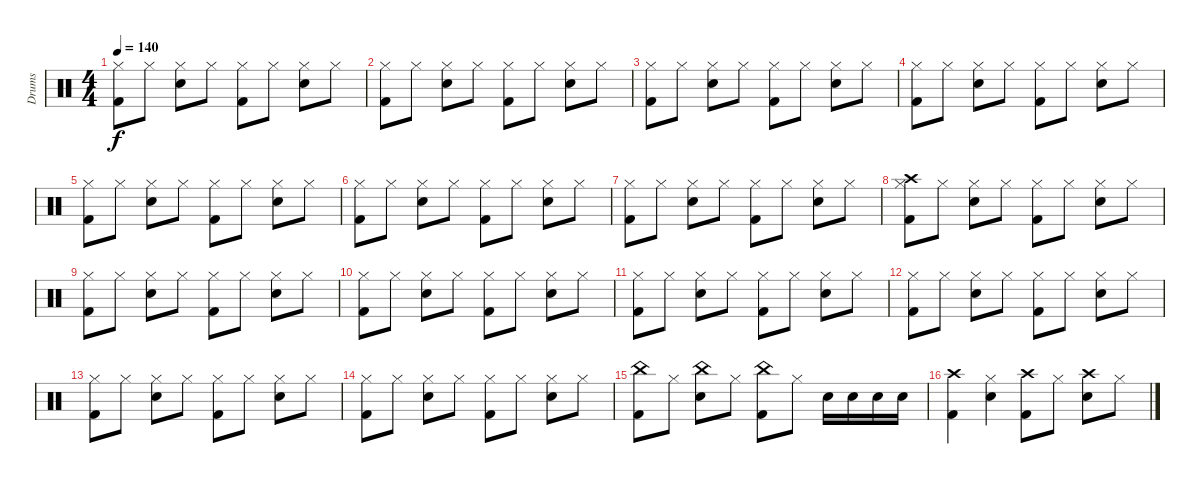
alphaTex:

\track ("Drums" "Drums") {instrument percussion}
\staff {score}
\articulation defaults
\ts (4 4)
\tempo 140
\clef neutral
\ks c
("Hi-Hat (closed)" "Kick (hit) 2").8{dy f} "Hi-Hat (closed)".8 ("Hi-Hat (closed)" "Electric Snare (hit)").8 "Hi-Hat (closed)".8 ("Hi-Hat (closed)" "Kick (hit) 2").8 "Hi-Hat (closed)".8 ("Hi-Hat (closed)" "Electric Snare (hit)").8 "Hi-Hat (closed)".8 |
("Hi-Hat (closed)" "Kick (hit) 2").8 "Hi-Hat (closed)".8 ("Hi-Hat (closed)" "Electric Snare (hit)").8 "Hi-Hat (closed)".8 ("Hi-Hat (closed)" "Kick (hit) 2").8 "Hi-Hat (closed)".8 ("Hi-Hat (closed)" "Electric Snare (hit)").8 "Hi-Hat (closed)".8 |
("Hi-Hat (closed)" "Kick (hit) 2").8 "Hi-Hat (closed)".8 ("Hi-Hat (closed)" "Electric Snare (hit)").8 "Hi-Hat (closed)".8 ("Hi-Hat (closed)" "Kick (hit) 2").8 "Hi-Hat (closed)".8 ("Hi-Hat (closed)" "Electric Snare (hit)").8 "Hi-Hat (closed)".8 |
("Hi-Hat (closed)" "Kick (hit) 2").8 "Hi-Hat (closed)".8 ("Hi-Hat (closed)" "Electric Snare (hit)").8 "Hi-Hat (closed)".8 ("Hi-Hat (closed)" "Kick (hit) 2").8 "Hi-Hat (closed)".8 ("Hi-Hat (closed)" "Electric Snare (hit)").8 "Hi-Hat (closed)".8 |
("Hi-Hat (closed)" "Kick (hit) 2").8 "Hi-Hat (closed)".8 ("Hi-Hat (closed)" "Electric Snare (hit)").8 "Hi-Hat (closed)".8 ("Hi-Hat (closed)" "Kick (hit) 2").8 "Hi-Hat (closed)".8 ("Hi-Hat (closed)" "Electric Snare (hit)").8 "Hi-Hat (closed)".8 |
("Hi-Hat (closed)" "Kick (hit) 2").8 "Hi-Hat (closed)".8 ("Hi-Hat (closed)" "Electric Snare (hit)").8 "Hi-Hat (closed)".8 ("Hi-Hat (closed)" "Kick (hit) 2").8 "Hi-Hat (closed)".8 ("Hi-Hat (closed)" "Electric Snare (hit)").8 "Hi-Hat (closed)".8 |
("Hi-Hat (closed)" "Kick (hit) 2").8 "Hi-Hat (closed)".8 ("Hi-Hat (closed)" "Electric Snare (hit)").8 "Hi-Hat (closed)".8 ("Hi-Hat (closed)" "Kick (hit) 2").8 "Hi-Hat (closed)".8 ("Hi-Hat (closed)" "Electric Snare (hit)").8 "Hi-Hat (closed)".8 |
("Hi-Hat (closed)" "Kick (hit) 2" "Crash high (hit)").8 "Hi-Hat (closed)".8 ("Hi-Hat (closed)" "Electric Snare (hit)").8 "Hi-Hat (closed)".8 ("Hi-Hat (closed)" "Kick (hit) 2").8 "Hi-Hat (closed)".8 ("Hi-Hat (closed)" "Electric Snare (hit)").8 "Hi-Hat (closed)".8 |
("Hi-Hat (closed)" "Kick (hit) 2").8 "Hi-Hat (closed)".8 ("Hi-Hat (closed)" "Electric Snare (hit)").8 "Hi-Hat (closed)".8 ("Hi-Hat (closed)" "Kick (hit) 2").8 "Hi-Hat (closed)".8 ("Hi-Hat (closed)" "Electric Snare (hit)").8 "Hi-Hat (closed)".8 |
("Hi-Hat (closed)" "Kick (hit) 2").8 "Hi-Hat (closed)".8 ("Hi-Hat (closed)" "Electric Snare (hit)").8 "Hi-Hat (closed)".8 ("Hi-Hat (closed)" "Kick (hit) 2").8 "Hi-Hat (closed)".8 ("Hi-Hat (closed)" "Electric Snare (hit)").8 "Hi-Hat (closed)".8 |
("Hi-Hat (closed)" "Kick (hit) 2").8 "Hi-Hat (closed)".8 ("Hi-Hat (closed)" "Electric Snare (hit)").8 "Hi-Hat (closed)".8 ("Hi-Hat (closed)" "Kick (hit) 2").8 "Hi-Hat (closed)".8 ("Hi-Hat (closed)" "Electric Snare (hit)").8 "Hi-Hat (closed)".8 |
("Hi-Hat (closed)" "Kick (hit) 2").8 "Hi-Hat (closed)".8 ("Hi-Hat (closed)" "Electric Snare (hit)").8 "Hi-Hat (closed)".8 ("Hi-Hat (closed)" "Kick (hit) 2").8 "Hi-Hat (closed)".8 ("Hi-Hat (closed)" "Electric Snare (hit)").8 "Hi-Hat (closed)".8 |
("Hi-Hat (closed)" "Kick (hit) 2").8 "Hi-Hat (closed)".8 ("Hi-Hat (closed)" "Electric Snare (hit)").8 "Hi-Hat (closed)".8 ("Hi-Hat (closed)" "Kick (hit) 2").8 "Hi-Hat (closed)".8 ("Hi-Hat (closed)" "Electric Snare (hit)").8 "Hi-Hat (closed)".8 |
("Hi-Hat (closed)" "Kick (hit) 2").8 "Hi-Hat (closed)".8 ("Hi-Hat (closed)" "Electric Snare (hit)").8 "Hi-Hat (closed)".8 ("Hi-Hat (closed)" "Kick (hit) 2").8 "Hi-Hat (closed)".8 ("Hi-Hat (closed)" "Electric Snare (hit)").8 "Hi-Hat (closed)".8 |
("China (hit)" "Kick (hit) 2").8 "Hi-Hat (closed)".8 ("China (hit)" "Electric Snare (hit)").8 "Hi-Hat (closed)".8 ("China (hit)" "Kick (hit) 2").8 "Hi-Hat (closed)".8 "Electric Snare (hit)".16 "Electric Snare (hit)".16 "Electric Snare (hit)".16 "Electric Snare (hit)".16 |
("Crash high (hit)" "Kick (hit) 2").4 ("Hi-Hat (closed)" "Electric Snare (hit)").4 ("Crash high (hit)" "Kick (hit) 2").8 "Hi-Hat (closed)".8 ("Crash high (hit)" "Electric Snare (hit)").8 "Hi-Hat (closed)".8
